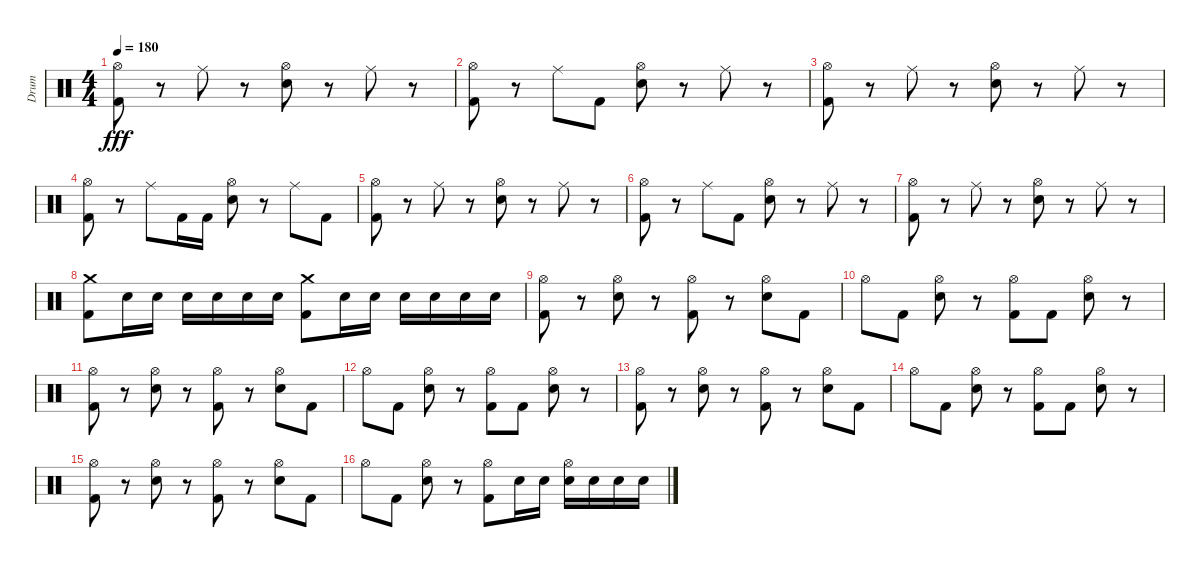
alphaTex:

\track ("Drum" "Drum") {instrument percussion}
\staff {score}
\articulation defaults
\ts (4 4)
\tempo 180
\clef neutral
\ks c
("Hi-Hat (open)" "Kick (hit) 2").8{dy fff} r.8 "Ride (middle)".8 r.8 ("Hi-Hat (open)" "Electric Snare (hit)").8 r.8 "Ride (middle)".8 r.8 |
("Hi-Hat (open)" "Kick (hit) 2").8 r.8 "Ride (middle)".8 "Kick (hit) 2".8 ("Hi-Hat (open)" "Electric Snare (hit)").8 r.8 "Ride (middle)".8 r.8 |
("Hi-Hat (open)" "Kick (hit) 2").8 r.8 "Ride (middle)".8 r.8 ("Hi-Hat (open)" "Electric Snare (hit)").8 r.8 "Ride (middle)".8 r.8 |
("Hi-Hat (open)" "Kick (hit) 2").8 r.8 "Ride (middle)".8 "Kick (hit) 2".16 "Kick (hit) 2".16 ("Hi-Hat (open)" "Electric Snare (hit)").8 r.8 "Ride (middle)".8 "Kick (hit) 2".8 |
("Hi-Hat (open)" "Kick (hit) 2").8 r.8 "Ride (middle)".8 r.8 ("Hi-Hat (open)" "Electric Snare (hit)").8 r.8 "Ride (middle)".8 r.8 |
("Hi-Hat (open)" "Kick (hit) 2").8 r.8 "Ride (middle)".8 "Kick (hit) 2".8 ("Hi-Hat (open)" "Electric Snare (hit)").8 r.8 "Ride (middle)".8 r.8 |
("Hi-Hat (open)" "Kick (hit) 2").8 r.8 "Ride (middle)".8 r.8 ("Hi-Hat (open)" "Electric Snare (hit)").8 r.8 "Ride (middle)".8 r.8 |
("Crash medium (hit)" "Kick (hit) 2").8 "Electric Snare (hit)".16 "Electric Snare (hit)".16 "Electric Snare (hit)".16 "Electric Snare (hit)".16 "Electric Snare (hit)".16 "Electric Snare (hit)".16 ("Crash medium (hit)" "Kick (hit) 2").8 "Electric Snare (hit)".16 "Electric Snare (hit)".16 "Electric Snare (hit)".16 "Electric Snare (hit)".16 "Electric Snare (hit)".16 "Electric Snare (hit)".16 |
("Hi-Hat (open)" "Kick (hit) 2").8 r.8 ("Hi-Hat (open)" "Electric Snare (hit)").8 r.8 ("Hi-Hat (open)" "Kick (hit) 2").8 r.8 ("Hi-Hat (open)" "Electric Snare (hit)").8 "Kick (hit) 2".8 |
"Hi-Hat (open)".8 "Kick (hit) 2".8 ("Hi-Hat (open)" "Electric Snare (hit)").8 r.8 ("Hi-Hat (open)" "Kick (hit) 2").8 "Kick (hit) 2".8 ("Hi-Hat (open)" "Electric Snare (hit)").8 r.8 |
("Hi-Hat (open)" "Kick (hit) 2").8 r.8 ("Hi-Hat (open)" "Electric Snare (hit)").8 r.8 ("Hi-Hat (open)" "Kick (hit) 2").8 r.8 ("Hi-Hat (open)" "Electric Snare (hit)").8 "Kick (hit) 2".8 |
"Hi-Hat (open)".8 "Kick (hit) 2".8 ("Hi-Hat (open)" "Electric Snare (hit)").8 r.8 ("Hi-Hat (open)" "Kick (hit) 2").8 "Kick (hit) 2".8 ("Hi-Hat (open)" "Electric Snare (hit)").8 r.8 |
("Hi-Hat (open)" "Kick (hit) 2").8 r.8 ("Hi-Hat (open)" "Electric Snare (hit)").8 r.8 ("Hi-Hat (open)" "Kick (hit) 2").8 r.8 ("Hi-Hat (open)" "Electric Snare (hit)").8 "Kick (hit) 2".8 |
"Hi-Hat (open)".8 "Kick (hit) 2".8 ("Hi-Hat (open)" "Electric Snare (hit)").8 r.8 ("Hi-Hat (open)" "Kick (hit) 2").8 "Kick (hit) 2".8 ("Hi-Hat (open)" "Electric Snare (hit)").8 r.8 |
("Hi-Hat (open)" "Kick (hit) 2").8 r.8 ("Hi-Hat (open)" "Electric Snare (hit)").8 r.8 ("Hi-Hat (open)" "Kick (hit) 2").8 r.8 ("Hi-Hat (open)" "Electric Snare (hit)").8 "Kick (hit) 2".8 |
"Hi-Hat (open)".8 "Kick (hit) 2".8 ("Hi-Hat (open)" "Electric Snare (hit)").8 r.8 ("Hi-Hat (open)" "Kick (hit) 2").8 "Electric Snare (hit)".16 "Electric Snare (hit)".16 ("Hi-Hat (open)" "Electric Snare (hit)").16 "Electric Snare (hit)".16 "Electric Snare (hit)".16 "Electric Snare (hit)".16
